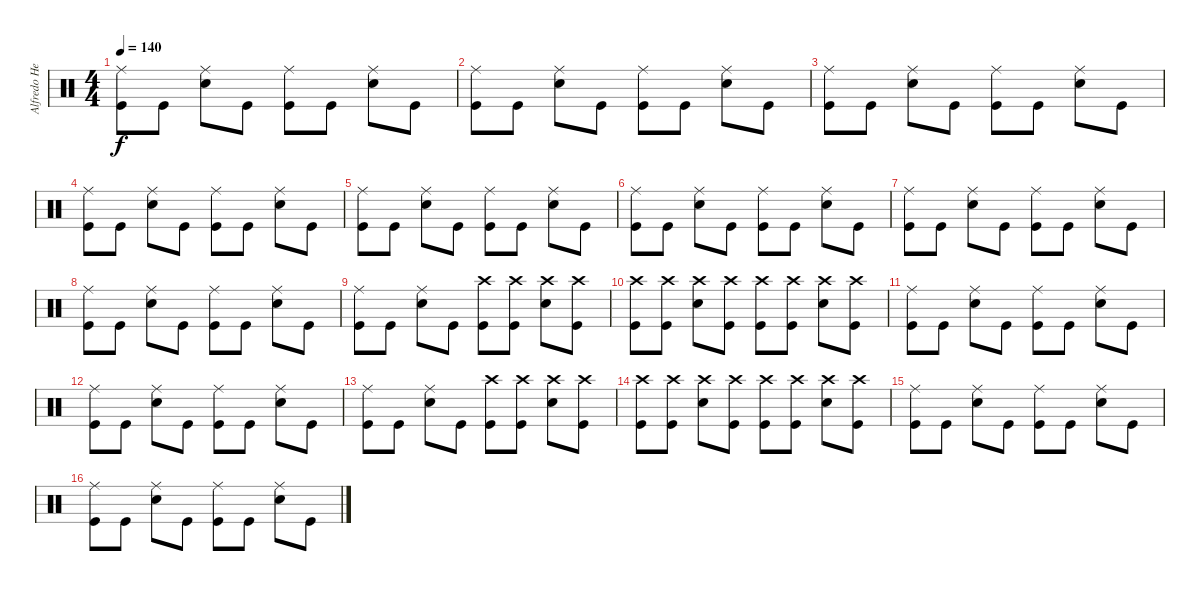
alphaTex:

\track ("Alfredo Hernandez - Percussion" "Alfredo He") {instrument percussion}
\staff {score}
\articulation defaults
\ts (4 4)
\tempo 140
\clef neutral
\ks c
("Kick (hit)" "Ride (middle)").8{dy f} "Kick (hit)".8 ("Snare (hit) 2" "Ride (middle)").8 "Kick (hit)".8 ("Kick (hit)" "Ride (middle)").8 "Kick (hit)".8 ("Snare (hit) 2" "Ride (middle)").8 "Kick (hit)".8 |
("Kick (hit)" "Ride (middle)").8 "Kick (hit)".8 ("Snare (hit) 2" "Ride (middle)").8 "Kick (hit)".8 ("Kick (hit)" "Ride (middle)").8 "Kick (hit)".8 ("Snare (hit) 2" "Ride (middle)").8 "Kick (hit)".8 |
("Kick (hit)" "Ride (middle)").8 "Kick (hit)".8 ("Snare (hit) 2" "Ride (middle)").8 "Kick (hit)".8 ("Kick (hit)" "Ride (middle)").8 "Kick (hit)".8 ("Snare (hit) 2" "Ride (middle)").8 "Kick (hit)".8 |
("Kick (hit)" "Ride (middle)").8 "Kick (hit)".8 ("Snare (hit) 2" "Ride (middle)").8 "Kick (hit)".8 ("Kick (hit)" "Ride (middle)").8 "Kick (hit)".8 ("Snare (hit) 2" "Ride (middle)").8 "Kick (hit)".8 |
("Kick (hit)" "Ride (middle)").8 "Kick (hit)".8 ("Snare (hit) 2" "Ride (middle)").8 "Kick (hit)".8 ("Kick (hit)" "Ride (middle)").8 "Kick (hit)".8 ("Snare (hit) 2" "Ride (middle)").8 "Kick (hit)".8 |
("Kick (hit)" "Ride (middle)").8 "Kick (hit)".8 ("Snare (hit) 2" "Ride (middle)").8 "Kick (hit)".8 ("Kick (hit)" "Ride (middle)").8 "Kick (hit)".8 ("Snare (hit) 2" "Ride (middle)").8 "Kick (hit)".8 |
("Kick (hit)" "Ride (middle)").8 "Kick (hit)".8 ("Snare (hit) 2" "Ride (middle)").8 "Kick (hit)".8 ("Kick (hit)" "Ride (middle)").8 "Kick (hit)".8 ("Snare (hit) 2" "Ride (middle)").8 "Kick (hit)".8 |
("Kick (hit)" "Ride (middle)").8 "Kick (hit)".8 ("Snare (hit) 2" "Ride (middle)").8 "Kick (hit)".8 ("Kick (hit)" "Ride (middle)").8 "Kick (hit)".8 ("Snare (hit) 2" "Ride (middle)").8 "Kick (hit)".8 |
("Kick (hit)" "Ride (middle)").8 "Kick (hit)".8 ("Snare (hit) 2" "Ride (middle)").8 "Kick (hit)".8 ("Kick (hit)" "Crash high (hit)").8 ("Kick (hit)" "Crash high (hit)").8 ("Snare (hit) 2" "Crash high (hit)").8 ("Kick (hit)" "Crash high (hit)").8 |
("Kick (hit)" "Crash high (hit)").8 ("Kick (hit)" "Crash high (hit)").8 ("Snare (hit) 2" "Crash high (hit)").8 ("Kick (hit)" "Crash high (hit)").8 ("Kick (hit)" "Crash high (hit)").8 ("Kick (hit)" "Crash high (hit)").8 ("Snare (hit) 2" "Crash high (hit)").8 ("Kick (hit)" "Crash high (hit)").8 |
("Kick (hit)" "Ride (middle)").8 "Kick (hit)".8 ("Snare (hit) 2" "Ride (middle)").8 "Kick (hit)".8 ("Kick (hit)" "Ride (middle)").8 "Kick (hit)".8 ("Snare (hit) 2" "Ride (middle)").8 "Kick (hit)".8 |
("Kick (hit)" "Ride (middle)").8 "Kick (hit)".8 ("Snare (hit) 2" "Ride (middle)").8 "Kick (hit)".8 ("Kick (hit)" "Ride (middle)").8 "Kick (hit)".8 ("Snare (hit) 2" "Ride (middle)").8 "Kick (hit)".8 |
("Kick (hit)" "Ride (middle)").8 "Kick (hit)".8 ("Snare (hit) 2" "Ride (middle)").8 "Kick (hit)".8 ("Kick (hit)" "Crash high (hit)").8 ("Kick (hit)" "Crash high (hit)").8 ("Snare (hit) 2" "Crash high (hit)").8 ("Kick (hit)" "Crash high (hit)").8 |
("Kick (hit)" "Crash high (hit)").8 ("Kick (hit)" "Crash high (hit)").8 ("Snare (hit) 2" "Crash high (hit)").8 ("Kick (hit)" "Crash high (hit)").8 ("Kick (hit)" "Crash high (hit)").8 ("Kick (hit)" "Crash high (hit)").8 ("Snare (hit) 2" "Crash high (hit)").8 ("Kick (hit)" "Crash high (hit)").8 |
("Kick (hit)" "Ride (middle)").8 "Kick (hit)".8 ("Snare (hit) 2" "Ride (middle)").8 "Kick (hit)".8 ("Kick (hit)" "Ride (middle)").8 "Kick (hit)".8 ("Snare (hit) 2" "Ride (middle)").8 "Kick (hit)".8 |
("Kick (hit)" "Ride (middle)").8 "Kick (hit)".8 ("Snare (hit) 2" "Ride (middle)").8 "Kick (hit)".8 ("Kick (hit)" "Ride (middle)").8 "Kick (hit)".8 ("Snare (hit) 2" "Ride (middle)").8 "Kick (hit)".8
